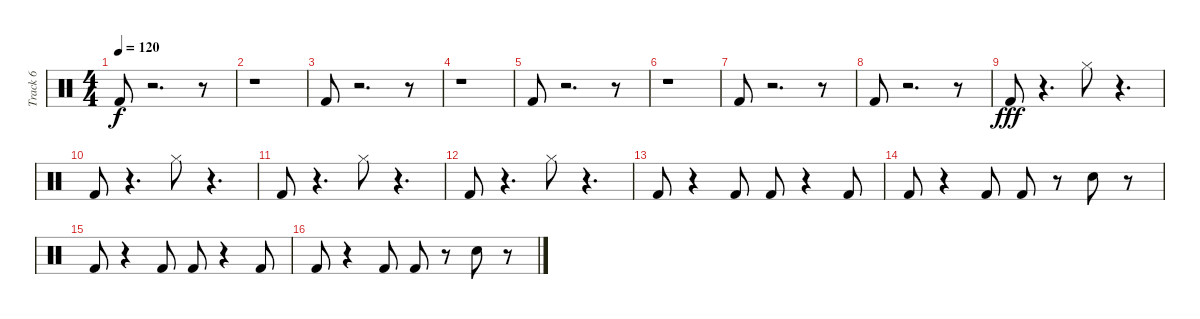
\track ("Track 6" "Track 6") {instrument percussion}
\staff {score}
\articulation defaults
\ts (4 4)
\tempo 120
\clef neutral
\ks c "Kick (hit) 2".8{dy f}
r.2{d} r.8 |
r.1 |
"Kick (hit) 2".8 r.2{d} r.8 |
r.1 |
"Kick (hit) 2".8 r.2{d} r.8 |
r.1 |
"Kick (hit) 2".8 r.2{d} r.8 |
"Kick (hit) 2".8 r.2{d} r.8 |
"Kick (hit) 2".8{dy fff} r.4{d} "Hi-Hat (closed)".8 r.4{d} |
"Kick (hit) 2".8 r.4{d} "Hi-Hat (closed)".8 r.4{d} |
"Kick (hit) 2".8 r.4{d} "Hi-Hat (closed)".8 r.4{d} |
"Kick (hit) 2".8 r.4{d} "Hi-Hat (closed)".8 r.4{d} |
"Kick (hit) 2".8 r.4 "Kick (hit) 2".8 "Kick (hit) 2".8 r.4 "Kick (hit) 2".8 |
"Kick (hit) 2".8 r.4 "Kick (hit) 2".8 "Kick (hit) 2".8 r.8 "Snare (hit) 2".8 r.8 |
"Kick (hit) 2".8 r.4 "Kick (hit) 2".8 "Kick (hit) 2".8 r.4 "Kick (hit) 2".8 |
"Kick (hit) 2".8 r.4 "Kick (hit) 2".8 "Kick (hit) 2".8 r.8 "Snare (hit) 2".8 r.8
